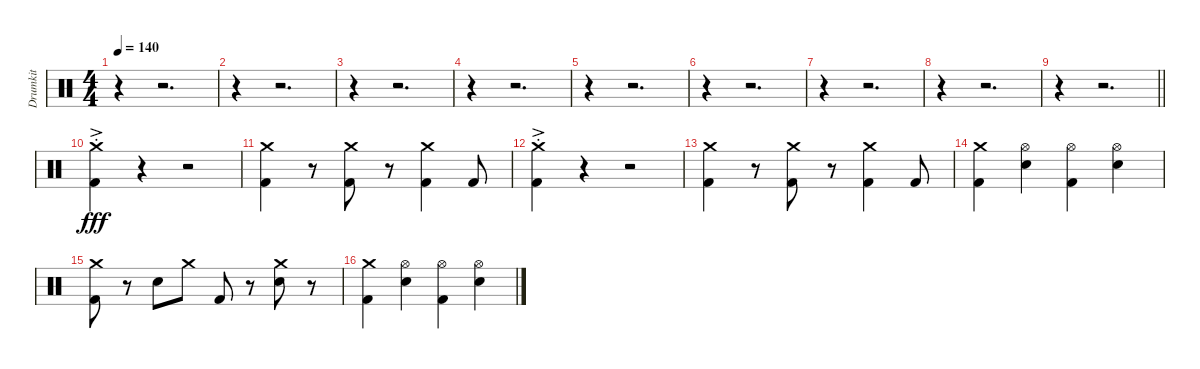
\track ("Drumkit" "Drumkit") {instrument percussion}
\staff {score}
\articulation defaults
\ts (4 4)
\tempo 140
\clef neutral
\ks c
r.4{dy fff} r.2{d} |
r.4 r.2{d} |
r.4 r.2{d} |
r.4 r.2{d} |
r.4 r.2{d} |
r.4 r.2{d} |
r.4 r.2{d} |
r.4 r.2{d} |
\barLineRight lightlight
r.4 r.2{d} |
("Crash medium (hit)"{ac st} "Kick (hit) 2"{ac st}).4 r.4 r.2 |
("Crash medium (hit)" "Kick (hit) 2").4 r.8 ("Crash medium (hit)" "Kick (hit) 2").8 r.8 ("Crash medium (hit)" "Kick (hit) 2").4 "Kick (hit) 2".8 |
("Crash medium (hit)" "Kick (hit) 2"{ac st}).4 r.4 r.2 |
("Crash medium (hit)" "Kick (hit) 2").4 r.8 ("Crash medium (hit)" "Kick (hit) 2").8 r.8 ("Crash medium (hit)" "Kick (hit) 2").4 "Kick (hit) 2".8 |
("Crash medium (hit)" "Kick (hit) 2").4 ("Hi-Hat (open)" "Snare (hit) 2").4 ("Hi-Hat (open)" "Kick (hit) 2").4 ("Hi-Hat (open)" "Snare (hit) 2").4 |
("Crash medium (hit)" "Kick (hit) 2").8 r.8 "Snare (hit) 2".8 "Crash medium (hit)".8 "Kick (hit) 2".8 r.8 ("Crash medium (hit)" "Snare (hit) 2").8 r.8 |
("Crash medium (hit)" "Kick (hit) 2").4 ("Hi-Hat (open)" "Snare (hit) 2").4 ("Hi-Hat (open)" "Kick (hit) 2").4 ("Hi-Hat (open)" "Snare (hit) 2").4
